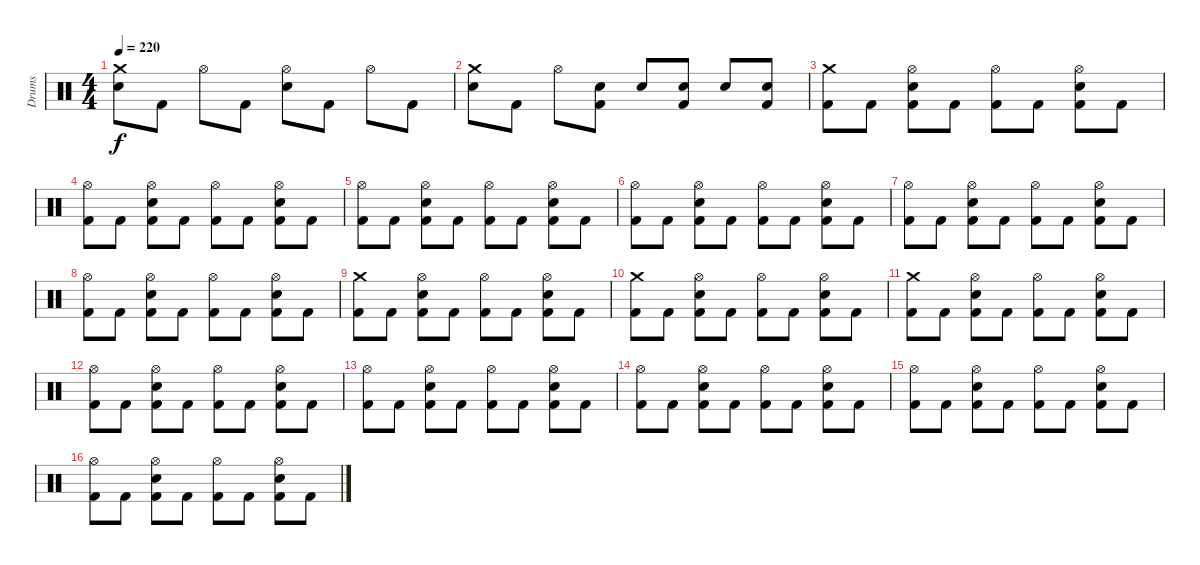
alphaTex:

\track ("Drums" "Drums") {instrument percussion}
\staff {score}
\articulation defaults
\ts (4 4)
\tempo 220
\clef neutral
\ks c
("Crash medium (hit)" "Electric Snare (hit)").8{dy f} "Kick (hit) 2".8 "Hi-Hat (open)".8 "Kick (hit) 2".8 ("Hi-Hat (open)" "Electric Snare (hit)").8 "Kick (hit) 2".8 "Hi-Hat (open)".8 "Kick (hit) 2".8 |
("Crash medium (hit)" "Electric Snare (hit)").8 "Kick (hit) 2".8 "Hi-Hat (open)".8 ("Electric Snare (hit)" "Kick (hit) 2").8 "Electric Snare (hit)".8 ("Electric Snare (hit)" "Kick (hit) 2").8 "Electric Snare (hit)".8 ("Electric Snare (hit)" "Kick (hit) 2").8 |
("Crash medium (hit)" "Kick (hit) 2").8 "Kick (hit) 2".8 ("Hi-Hat (open)" "Electric Snare (hit)" "Kick (hit) 2").8 "Kick (hit) 2".8 ("Hi-Hat (open)" "Kick (hit) 2").8 "Kick (hit) 2".8 ("Hi-Hat (open)" "Electric Snare (hit)" "Kick (hit) 2").8 "Kick (hit) 2".8 |
("Hi-Hat (open)" "Kick (hit) 2").8 "Kick (hit) 2".8 ("Hi-Hat (open)" "Electric Snare (hit)" "Kick (hit) 2").8 "Kick (hit) 2".8 ("Hi-Hat (open)" "Kick (hit) 2").8 "Kick (hit) 2".8 ("Hi-Hat (open)" "Electric Snare (hit)" "Kick (hit) 2").8 "Kick (hit) 2".8 |
("Hi-Hat (open)" "Kick (hit) 2").8 "Kick (hit) 2".8 ("Hi-Hat (open)" "Electric Snare (hit)" "Kick (hit) 2").8 "Kick (hit) 2".8 ("Hi-Hat (open)" "Kick (hit) 2").8 "Kick (hit) 2".8 ("Hi-Hat (open)" "Electric Snare (hit)" "Kick (hit) 2").8 "Kick (hit) 2".8 |
("Hi-Hat (open)" "Kick (hit) 2").8 "Kick (hit) 2".8 ("Hi-Hat (open)" "Electric Snare (hit)" "Kick (hit) 2").8 "Kick (hit) 2".8 ("Hi-Hat (open)" "Kick (hit) 2").8 "Kick (hit) 2".8 ("Hi-Hat (open)" "Electric Snare (hit)" "Kick (hit) 2").8 "Kick (hit) 2".8 |
("Hi-Hat (open)" "Kick (hit) 2").8 "Kick (hit) 2".8 ("Hi-Hat (open)" "Electric Snare (hit)" "Kick (hit) 2").8 "Kick (hit) 2".8 ("Hi-Hat (open)" "Kick (hit) 2").8 "Kick (hit) 2".8 ("Hi-Hat (open)" "Electric Snare (hit)" "Kick (hit) 2").8 "Kick (hit) 2".8 |
("Hi-Hat (open)" "Kick (hit) 2").8 "Kick (hit) 2".8 ("Hi-Hat (open)" "Electric Snare (hit)" "Kick (hit) 2").8 "Kick (hit) 2".8 ("Hi-Hat (open)" "Kick (hit) 2").8 "Kick (hit) 2".8 ("Hi-Hat (open)" "Electric Snare (hit)" "Kick (hit) 2").8 "Kick (hit) 2".8 |
("Crash medium (hit)" "Kick (hit) 2").8 "Kick (hit) 2".8 ("Hi-Hat (open)" "Electric Snare (hit)" "Kick (hit) 2").8 "Kick (hit) 2".8 ("Hi-Hat (open)" "Kick (hit) 2").8 "Kick (hit) 2".8 ("Hi-Hat (open)" "Electric Snare (hit)" "Kick (hit) 2").8 "Kick (hit) 2".8 |
("Crash medium (hit)" "Kick (hit) 2").8 "Kick (hit) 2".8 ("Hi-Hat (open)" "Electric Snare (hit)" "Kick (hit) 2").8 "Kick (hit) 2".8 ("Hi-Hat (open)" "Kick (hit) 2").8 "Kick (hit) 2".8 ("Hi-Hat (open)" "Electric Snare (hit)" "Kick (hit) 2").8 "Kick (hit) 2".8 |
("Crash medium (hit)" "Kick (hit) 2").8 "Kick (hit) 2".8 ("Hi-Hat (open)" "Electric Snare (hit)" "Kick (hit) 2").8 "Kick (hit) 2".8 ("Hi-Hat (open)" "Kick (hit) 2").8 "Kick (hit) 2".8 ("Hi-Hat (open)" "Electric Snare (hit)" "Kick (hit) 2").8 "Kick (hit) 2".8 |
("Hi-Hat (open)" "Kick (hit) 2").8 "Kick (hit) 2".8 ("Hi-Hat (open)" "Electric Snare (hit)" "Kick (hit) 2").8 "Kick (hit) 2".8 ("Hi-Hat (open)" "Kick (hit) 2").8 "Kick (hit) 2".8 ("Hi-Hat (open)" "Electric Snare (hit)" "Kick (hit) 2").8 "Kick (hit) 2".8 |
("Hi-Hat (open)" "Kick (hit) 2").8 "Kick (hit) 2".8 ("Hi-Hat (open)" "Electric Snare (hit)" "Kick (hit) 2").8 "Kick (hit) 2".8 ("Hi-Hat (open)" "Kick (hit) 2").8 "Kick (hit) 2".8 ("Hi-Hat (open)" "Electric Snare (hit)" "Kick (hit) 2").8 "Kick (hit) 2".8 |
("Hi-Hat (open)" "Kick (hit) 2").8 "Kick (hit) 2".8 ("Hi-Hat (open)" "Electric Snare (hit)" "Kick (hit) 2").8 "Kick (hit) 2".8 ("Hi-Hat (open)" "Kick (hit) 2").8 "Kick (hit) 2".8 ("Hi-Hat (open)" "Electric Snare (hit)" "Kick (hit) 2").8 "Kick (hit) 2".8 |
("Hi-Hat (open)" "Kick (hit) 2").8 "Kick (hit) 2".8 ("Hi-Hat (open)" "Electric Snare (hit)" "Kick (hit) 2").8 "Kick (hit) 2".8 ("Hi-Hat (open)" "Kick (hit) 2").8 "Kick (hit) 2".8 ("Hi-Hat (open)" "Electric Snare (hit)" "Kick (hit) 2").8 "Kick (hit) 2".8 |
("Hi-Hat (open)" "Kick (hit) 2").8 "Kick (hit) 2".8 ("Hi-Hat (open)" "Electric Snare (hit)" "Kick (hit) 2").8 "Kick (hit) 2".8 ("Hi-Hat (open)" "Kick (hit) 2").8 "Kick (hit) 2".8 ("Hi-Hat (open)" "Electric Snare (hit)" "Kick (hit) 2").8 "Kick (hit) 2".8
